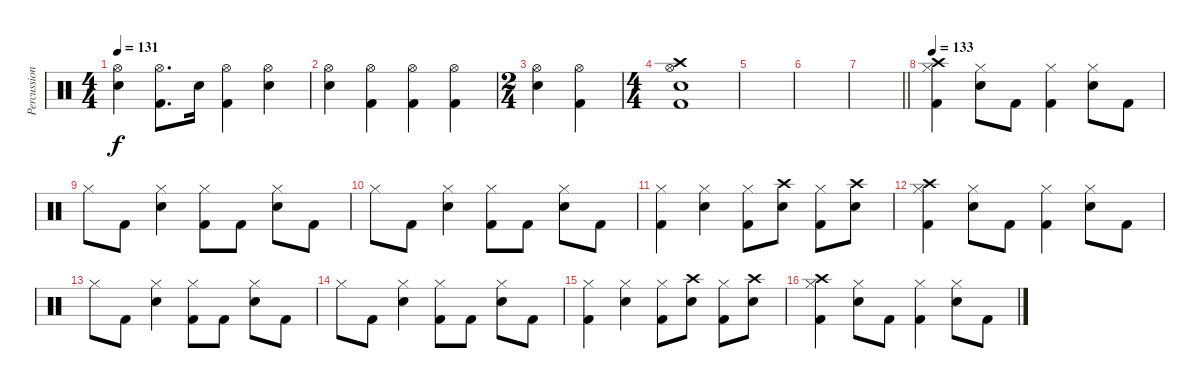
\track ("Percussion" "Percussion") {instrument percussion}
\staff {score}
\articulation defaults
\ts (4 4)
\tempo 131
\clef neutral
\ks c
("Hi-Hat (open)" "Electric Snare (hit)").4{dy f} ("Hi-Hat (open)" "Kick (hit) 2").8{d} "Electric Snare (hit)".16 ("Hi-Hat (open)" "Kick (hit) 2").4 ("Hi-Hat (open)" "Electric Snare (hit)").4 |
("Hi-Hat (open)" "Electric Snare (hit)").4 ("Hi-Hat (open)" "Kick (hit) 2").4 ("Hi-Hat (open)" "Kick (hit) 2").4 ("Hi-Hat (open)" "Kick (hit) 2").4 |
\ts (2 4)
("Hi-Hat (open)" "Electric Snare (hit)").4 ("Hi-Hat (open)" "Kick (hit) 2").4 |
\ts (4 4)
("Crash high (hit)" "Hi-Hat (open)" "Electric Snare (hit)" "Kick (hit) 2").1 |
|
|
\barLineRight lightlight
|
\tempo 133
("Hi-Hat (closed)" "Crash high (hit)" "Kick (hit) 2").4 ("Hi-Hat (closed)" "Electric Snare (hit)").8 "Kick (hit) 2".8 ("Hi-Hat (closed)" "Kick (hit) 2").4 ("Hi-Hat (closed)" "Electric Snare (hit)").8 "Kick (hit) 2".8 |
"Hi-Hat (closed)".8 "Kick (hit) 2".8 ("Hi-Hat (closed)" "Electric Snare (hit)").4 ("Hi-Hat (closed)" "Kick (hit) 2").8 "Kick (hit) 2".8 ("Hi-Hat (closed)" "Electric Snare (hit)").8 "Kick (hit) 2".8 |
"Hi-Hat (closed)".8 "Kick (hit) 2".8 ("Hi-Hat (closed)" "Electric Snare (hit)").4 ("Hi-Hat (closed)" "Kick (hit) 2").8 "Kick (hit) 2".8 ("Hi-Hat (closed)" "Electric Snare (hit)").8 "Kick (hit) 2".8 |
("Hi-Hat (closed)" "Kick (hit) 2").4 ("Hi-Hat (closed)" "Electric Snare (hit)").4 ("Hi-Hat (closed)" "Kick (hit) 2").8 ("Crash high (hit)" "Electric Snare (hit)").8 ("Hi-Hat (closed)" "Kick (hit) 2").8 ("Crash high (hit)" "Electric Snare (hit)").8 |
("Hi-Hat (closed)" "Crash high (hit)" "Kick (hit) 2").4 ("Hi-Hat (closed)" "Electric Snare (hit)").8 "Kick (hit) 2".8 ("Hi-Hat (closed)" "Kick (hit) 2").4 ("Hi-Hat (closed)" "Electric Snare (hit)").8 "Kick (hit) 2".8 |
"Hi-Hat (closed)".8 "Kick (hit) 2".8 ("Hi-Hat (closed)" "Electric Snare (hit)").4 ("Hi-Hat (closed)" "Kick (hit) 2").8 "Kick (hit) 2".8 ("Hi-Hat (closed)" "Electric Snare (hit)").8 "Kick (hit) 2".8 |
"Hi-Hat (closed)".8 "Kick (hit) 2".8 ("Hi-Hat (closed)" "Electric Snare (hit)").4 ("Hi-Hat (closed)" "Kick (hit) 2").8 "Kick (hit) 2".8 ("Hi-Hat (closed)" "Electric Snare (hit)").8 "Kick (hit) 2".8 |
("Hi-Hat (closed)" "Kick (hit) 2").4 ("Hi-Hat (closed)" "Electric Snare (hit)").4 ("Hi-Hat (closed)" "Kick (hit) 2").8 ("Crash high (hit)" "Electric Snare (hit)").8 ("Hi-Hat (closed)" "Kick (hit) 2").8 ("Crash high (hit)" "Electric Snare (hit)").8 |
("Hi-Hat (closed)" "Crash high (hit)" "Kick (hit) 2").4 ("Hi-Hat (closed)" "Electric Snare (hit)").8 "Kick (hit) 2".8 ("Hi-Hat (closed)" "Kick (hit) 2").4 ("Hi-Hat (closed)" "Electric Snare (hit)").8 "Kick (hit) 2".8
